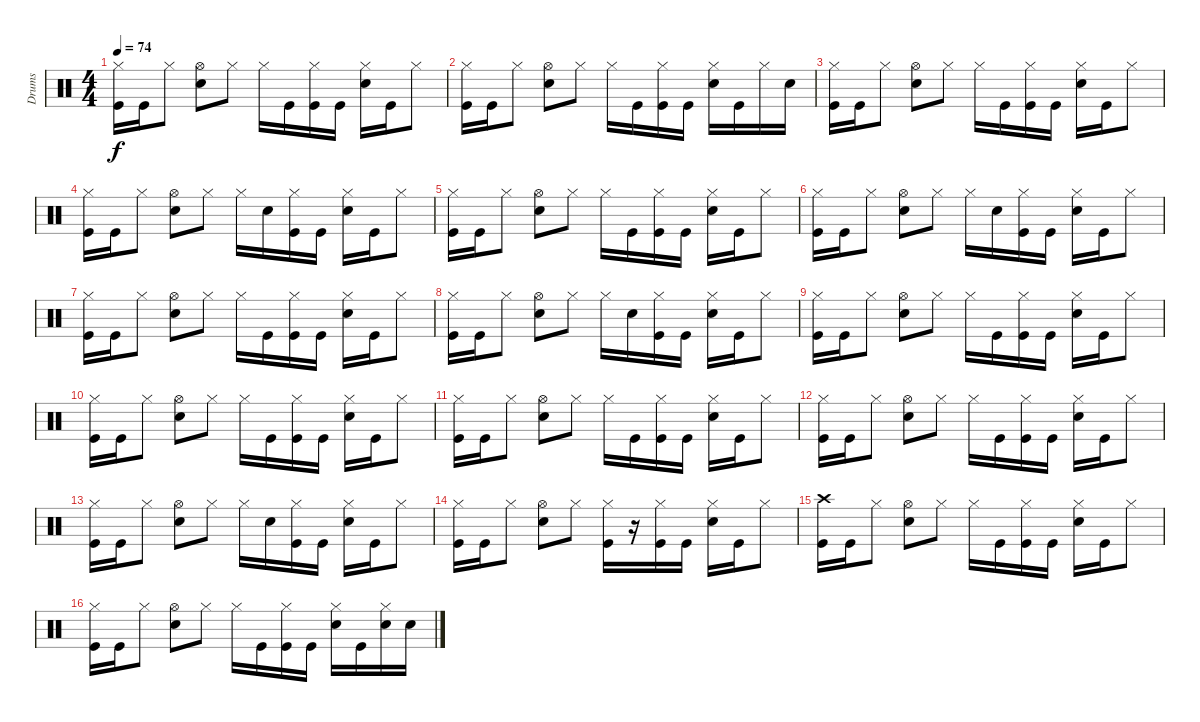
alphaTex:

\track ("Drums" "Drums") {instrument percussion}
\staff {score}
\articulation defaults
\ts (4 4)
\tempo 74
\clef neutral
\ks c
("Hi-Hat (closed)" "Kick (hit)").16{dy f} "Kick (hit)".16 "Hi-Hat (closed)".8 ("Hi-Hat (open)" "Snare (hit) 2").8 "Hi-Hat (closed)".8 "Hi-Hat (closed)".16 "Kick (hit)".16 ("Hi-Hat (closed)" "Kick (hit)").16 "Kick (hit)".16 ("Hi-Hat (closed)" "Snare (hit) 2").16 "Kick (hit)".16 "Hi-Hat (closed)".8 |
("Hi-Hat (closed)" "Kick (hit)").16 "Kick (hit)".16 "Hi-Hat (closed)".8 ("Hi-Hat (open)" "Snare (hit) 2").8 "Hi-Hat (closed)".8 "Hi-Hat (closed)".16 "Kick (hit)".16 ("Hi-Hat (closed)" "Kick (hit)").16 "Kick (hit)".16 ("Hi-Hat (closed)" "Snare (hit) 2").16 "Kick (hit)".16 "Hi-Hat (closed)".16 "Snare (hit) 2".16 |
("Hi-Hat (closed)" "Kick (hit)").16 "Kick (hit)".16 "Hi-Hat (closed)".8 ("Hi-Hat (open)" "Snare (hit) 2").8 "Hi-Hat (closed)".8 "Hi-Hat (closed)".16 "Kick (hit)".16 ("Hi-Hat (closed)" "Kick (hit)").16 "Kick (hit)".16 ("Hi-Hat (closed)" "Snare (hit) 2").16 "Kick (hit)".16 "Hi-Hat (closed)".8 |
("Hi-Hat (closed)" "Kick (hit)").16 "Kick (hit)".16 "Hi-Hat (closed)".8 ("Hi-Hat (open)" "Snare (hit) 2").8 "Hi-Hat (closed)".8 "Hi-Hat (closed)".16 "Snare (hit) 2".16 ("Hi-Hat (closed)" "Kick (hit)").16 "Kick (hit)".16 ("Hi-Hat (closed)" "Snare (hit) 2").16 "Kick (hit)".16 "Hi-Hat (closed)".8 |
("Hi-Hat (closed)" "Kick (hit)").16 "Kick (hit)".16 "Hi-Hat (closed)".8 ("Hi-Hat (open)" "Snare (hit) 2").8 "Hi-Hat (closed)".8 "Hi-Hat (closed)".16 "Kick (hit)".16 ("Hi-Hat (closed)" "Kick (hit)").16 "Kick (hit)".16 ("Hi-Hat (closed)" "Snare (hit) 2").16 "Kick (hit)".16 "Hi-Hat (closed)".8 |
("Hi-Hat (closed)" "Kick (hit)").16 "Kick (hit)".16 "Hi-Hat (closed)".8 ("Hi-Hat (open)" "Snare (hit) 2").8 "Hi-Hat (closed)".8 "Hi-Hat (closed)".16 "Snare (hit) 2".16 ("Hi-Hat (closed)" "Kick (hit)").16 "Kick (hit)".16 ("Hi-Hat (closed)" "Snare (hit) 2").16 "Kick (hit)".16 "Hi-Hat (closed)".8 |
("Hi-Hat (closed)" "Kick (hit)").16 "Kick (hit)".16 "Hi-Hat (closed)".8 ("Hi-Hat (open)" "Snare (hit) 2").8 "Hi-Hat (closed)".8 "Hi-Hat (closed)".16 "Kick (hit)".16 ("Hi-Hat (closed)" "Kick (hit)").16 "Kick (hit)".16 ("Hi-Hat (closed)" "Snare (hit) 2").16 "Kick (hit)".16 "Hi-Hat (closed)".8 |
("Hi-Hat (closed)" "Kick (hit)").16 "Kick (hit)".16 "Hi-Hat (closed)".8 ("Hi-Hat (open)" "Snare (hit) 2").8 "Hi-Hat (closed)".8 "Hi-Hat (closed)".16 "Snare (hit) 2".16 ("Hi-Hat (closed)" "Kick (hit)").16 "Kick (hit)".16 ("Hi-Hat (closed)" "Snare (hit) 2").16 "Kick (hit)".16 "Hi-Hat (closed)".8 |
("Hi-Hat (closed)" "Kick (hit)").16 "Kick (hit)".16 "Hi-Hat (closed)".8 ("Hi-Hat (open)" "Snare (hit) 2").8 "Hi-Hat (closed)".8 "Hi-Hat (closed)".16 "Kick (hit)".16 ("Hi-Hat (closed)" "Kick (hit)").16 "Kick (hit)".16 ("Hi-Hat (closed)" "Snare (hit) 2").16 "Kick (hit)".16 "Hi-Hat (closed)".8 |
("Hi-Hat (closed)" "Kick (hit)").16 "Kick (hit)".16 "Hi-Hat (closed)".8 ("Hi-Hat (open)" "Snare (hit) 2").8 "Hi-Hat (closed)".8 "Hi-Hat (closed)".16 "Kick (hit)".16 ("Hi-Hat (closed)" "Kick (hit)").16 "Kick (hit)".16 ("Hi-Hat (closed)" "Snare (hit) 2").16 "Kick (hit)".16 "Hi-Hat (closed)".8 |
("Hi-Hat (closed)" "Kick (hit)").16 "Kick (hit)".16 "Hi-Hat (closed)".8 ("Hi-Hat (open)" "Snare (hit) 2").8 "Hi-Hat (closed)".8 "Hi-Hat (closed)".16 "Kick (hit)".16 ("Hi-Hat (closed)" "Kick (hit)").16 "Kick (hit)".16 ("Hi-Hat (closed)" "Snare (hit) 2").16 "Kick (hit)".16 "Hi-Hat (closed)".8 |
("Hi-Hat (closed)" "Kick (hit)").16 "Kick (hit)".16 "Hi-Hat (closed)".8 ("Hi-Hat (open)" "Snare (hit) 2").8 "Hi-Hat (closed)".8 "Hi-Hat (closed)".16 "Kick (hit)".16 ("Hi-Hat (closed)" "Kick (hit)").16 "Kick (hit)".16 ("Hi-Hat (closed)" "Snare (hit) 2").16 "Kick (hit)".16 "Hi-Hat (closed)".8 |
("Hi-Hat (closed)" "Kick (hit)").16 "Kick (hit)".16 "Hi-Hat (closed)".8 ("Hi-Hat (open)" "Snare (hit) 2").8 "Hi-Hat (closed)".8 "Hi-Hat (closed)".16 "Snare (hit) 2".16 ("Hi-Hat (closed)" "Kick (hit)").16 "Kick (hit)".16 ("Hi-Hat (closed)" "Snare (hit) 2").16 "Kick (hit)".16 "Hi-Hat (closed)".8 |
("Hi-Hat (closed)" "Kick (hit)").16 "Kick (hit)".16 "Hi-Hat (closed)".8 ("Hi-Hat (open)" "Snare (hit) 2").8 "Hi-Hat (closed)".8 ("Hi-Hat (closed)" "Kick (hit)").16 r.16 ("Hi-Hat (closed)" "Kick (hit)").16 "Kick (hit)".16 ("Hi-Hat (closed)" "Snare (hit) 2").16 "Kick (hit)".16 "Hi-Hat (closed)".8 |
("Crash high (hit)" "Kick (hit)").16 "Kick (hit)".16 "Hi-Hat (closed)".8 ("Hi-Hat (open)" "Snare (hit) 2").8 "Hi-Hat (closed)".8 "Hi-Hat (closed)".16 "Kick (hit)".16 ("Hi-Hat (closed)" "Kick (hit)").16 "Kick (hit)".16 ("Hi-Hat (closed)" "Snare (hit) 2").16 "Kick (hit)".16 "Hi-Hat (closed)".8 |
("Hi-Hat (closed)" "Kick (hit)").16 "Kick (hit)".16 "Hi-Hat (closed)".8 ("Hi-Hat (open)" "Snare (hit) 2").8 "Hi-Hat (closed)".8 "Hi-Hat (closed)".16 "Kick (hit)".16 ("Hi-Hat (closed)" "Kick (hit)").16 "Kick (hit)".16 ("Hi-Hat (closed)" "Snare (hit) 2").16 "Kick (hit)".16 ("Hi-Hat (closed)" "Snare (hit) 2").16 "Snare (hit) 2".16
